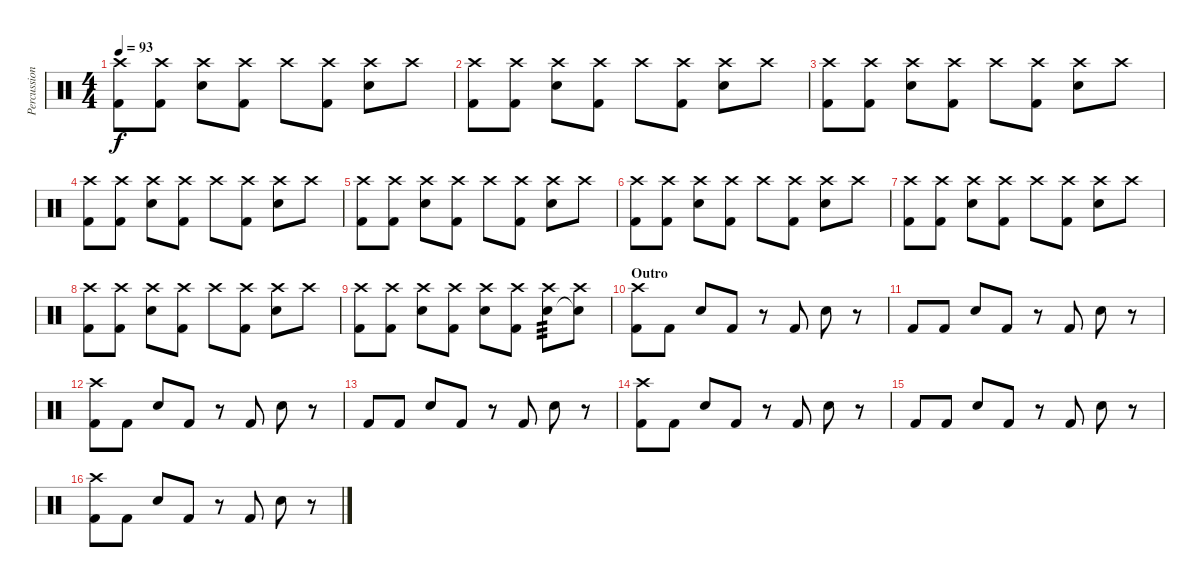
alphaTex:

\track ("Percussion" "Percussion") {instrument percussion}
\staff {score}
\articulation defaults
\ts (4 4)
\tempo 93
\clef neutral
\ks c
("Crash high (hit)" "Kick (hit) 2").8{dy f} ("Crash high (hit)" "Kick (hit) 2").8 ("Crash high (hit)" "Electric Snare (hit)").8 ("Crash high (hit)" "Kick (hit) 2").8 "Crash high (hit)".8 ("Crash high (hit)" "Kick (hit) 2").8 ("Crash high (hit)" "Electric Snare (hit)").8 "Crash high (hit)".8 |
("Crash high (hit)" "Kick (hit) 2").8 ("Crash high (hit)" "Kick (hit) 2").8 ("Crash high (hit)" "Electric Snare (hit)").8 ("Crash high (hit)" "Kick (hit) 2").8 "Crash high (hit)".8 ("Crash high (hit)" "Kick (hit) 2").8 ("Crash high (hit)" "Electric Snare (hit)").8 "Crash high (hit)".8 |
("Crash high (hit)" "Kick (hit) 2").8 ("Crash high (hit)" "Kick (hit) 2").8 ("Crash high (hit)" "Electric Snare (hit)").8 ("Crash high (hit)" "Kick (hit) 2").8 "Crash high (hit)".8 ("Crash high (hit)" "Kick (hit) 2").8 ("Crash high (hit)" "Electric Snare (hit)").8 "Crash high (hit)".8 |
("Crash high (hit)" "Kick (hit) 2").8 ("Crash high (hit)" "Kick (hit) 2").8 ("Crash high (hit)" "Electric Snare (hit)").8 ("Crash high (hit)" "Kick (hit) 2").8 "Crash high (hit)".8 ("Crash high (hit)" "Kick (hit) 2").8 ("Crash high (hit)" "Electric Snare (hit)").8 "Crash high (hit)".8 |
("Crash high (hit)" "Kick (hit) 2").8 ("Crash high (hit)" "Kick (hit) 2").8 ("Crash high (hit)" "Electric Snare (hit)").8 ("Crash high (hit)" "Kick (hit) 2").8 "Crash high (hit)".8 ("Crash high (hit)" "Kick (hit) 2").8 ("Crash high (hit)" "Electric Snare (hit)").8 "Crash high (hit)".8 |
("Crash high (hit)" "Kick (hit) 2").8 ("Crash high (hit)" "Kick (hit) 2").8 ("Crash high (hit)" "Electric Snare (hit)").8 ("Crash high (hit)" "Kick (hit) 2").8 "Crash high (hit)".8 ("Crash high (hit)" "Kick (hit) 2").8 ("Crash high (hit)" "Electric Snare (hit)").8 "Crash high (hit)".8 |
("Crash high (hit)" "Kick (hit) 2").8 ("Crash high (hit)" "Kick (hit) 2").8 ("Crash high (hit)" "Electric Snare (hit)").8 ("Crash high (hit)" "Kick (hit) 2").8 "Crash high (hit)".8 ("Crash high (hit)" "Kick (hit) 2").8 ("Crash high (hit)" "Electric Snare (hit)").8 "Crash high (hit)".8 |
("Crash high (hit)" "Kick (hit) 2").8 ("Crash high (hit)" "Kick (hit) 2").8 ("Crash high (hit)" "Electric Snare (hit)").8 ("Crash high (hit)" "Kick (hit) 2").8 "Crash high (hit)".8 ("Crash high (hit)" "Kick (hit) 2").8 ("Crash high (hit)" "Electric Snare (hit)").8 "Crash high (hit)".8 |
("Crash high (hit)" "Kick (hit) 2").8 ("Crash high (hit)" "Kick (hit) 2").8 ("Crash high (hit)" "Electric Snare (hit)").8 ("Crash high (hit)" "Kick (hit) 2").8 ("Crash high (hit)" "Electric Snare (hit)").8 ("Crash high (hit)" "Kick (hit) 2").8 ("Crash high (hit)" "Electric Snare (hit)").8{tp 3} ("Crash high (hit)" "Snare (hit)"{t}).8 |
\section ("" "Outro")
("Crash high (hit)" "Kick (hit) 2").8 "Kick (hit) 2".8 "Electric Snare (hit)".8 "Kick (hit) 2".8 r.8 "Kick (hit) 2".8 "Electric Snare (hit)".8 r.8 |
"Kick (hit) 2".8 "Kick (hit) 2".8 "Electric Snare (hit)".8 "Kick (hit) 2".8 r.8 "Kick (hit) 2".8 "Electric Snare (hit)".8 r.8 |
("Crash high (hit)" "Kick (hit) 2").8 "Kick (hit) 2".8 "Electric Snare (hit)".8 "Kick (hit) 2".8 r.8 "Kick (hit) 2".8 "Electric Snare (hit)".8 r.8 |
"Kick (hit) 2".8 "Kick (hit) 2".8 "Electric Snare (hit)".8 "Kick (hit) 2".8 r.8 "Kick (hit) 2".8 "Electric Snare (hit)".8 r.8 |
("Crash high (hit)" "Kick (hit) 2").8 "Kick (hit) 2".8 "Electric Snare (hit)".8 "Kick (hit) 2".8 r.8 "Kick (hit) 2".8 "Electric Snare (hit)".8 r.8 |
"Kick (hit) 2".8 "Kick (hit) 2".8 "Electric Snare (hit)".8 "Kick (hit) 2".8 r.8 "Kick (hit) 2".8 "Electric Snare (hit)".8 r.8 |
("Crash high (hit)" "Kick (hit) 2").8 "Kick (hit) 2".8 "Electric Snare (hit)".8 "Kick (hit) 2".8 r.8 "Kick (hit) 2".8 "Electric Snare (hit)".8 r.8
